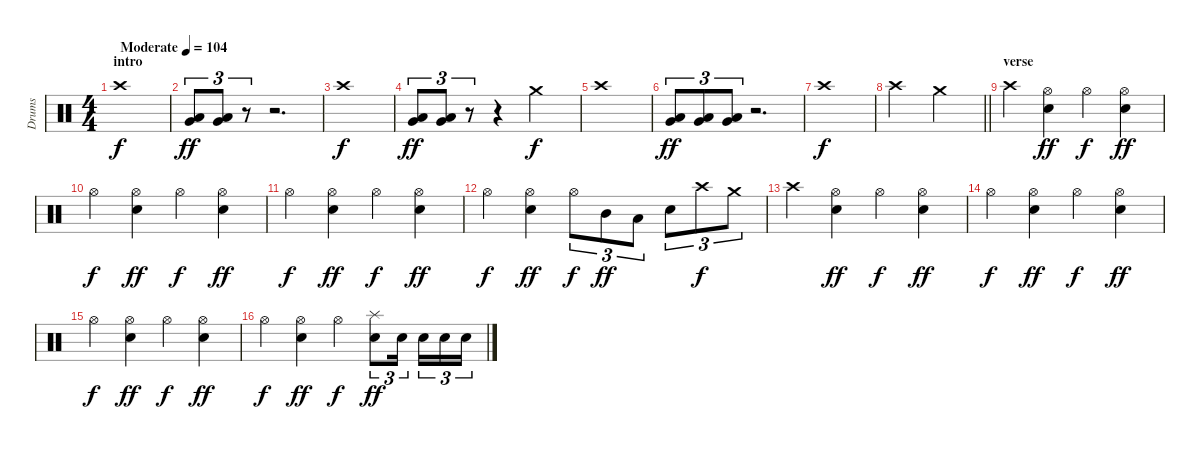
\track ("Drums" "Drums") {instrument percussion}
\staff {score}
\articulation defaults
\ts (4 4)
\section ("" "intro")
\tempo (104 "Moderate")
\clef neutral
\ks c "Crash high (hit)".1{dy f}
|
("Very Low Tom (hit)" "Low Floor Tom (hit)").8{tu (3 2) dy ff} ("Very Low Tom (hit)" "Low Floor Tom (hit)").8{tu (3 2)} r.8{tu (3 2)} r.2{d} |
"Crash high (hit)".1{dy f} |
("Very Low Tom (hit)" "Low Floor Tom (hit)").8{tu (3 2) dy ff} ("Very Low Tom (hit)" "Low Floor Tom (hit)").8{tu (3 2)} r.8{tu (3 2)} r.4 "Crash medium (hit)".2{dy f} |
"Crash high (hit)".1 |
("Very Low Tom (hit)" "Low Floor Tom (hit)").8{tu (3 2) dy ff} ("Very Low Tom (hit)" "Low Floor Tom (hit)").8{tu (3 2)} ("Very Low Tom (hit)" "Low Floor Tom (hit)").8{tu (3 2)} r.2{d} |
"Crash high (hit)".1{dy f} |
\barLineRight lightlight "Crash high (hit)".2 "Crash medium (hit)".2
|
\section ("" "verse")
"Crash high (hit)".4 ("Hi-Hat (open)" "Snare (hit) 2").4{dy ff} "Hi-Hat (open)".4{dy f} ("Hi-Hat (open)" "Snare (hit) 2").4{dy ff} |
"Hi-Hat (open)".4{dy f} ("Hi-Hat (open)" "Snare (hit) 2").4{dy ff} "Hi-Hat (open)".4{dy f} ("Hi-Hat (open)" "Snare (hit) 2").4{dy ff} |
"Hi-Hat (open)".4{dy f} ("Hi-Hat (open)" "Snare (hit) 2").4{dy ff} "Hi-Hat (open)".4{dy f} ("Hi-Hat (open)" "Snare (hit) 2").4{dy ff} |
"Hi-Hat (open)".4{dy f} ("Hi-Hat (open)" "Snare (hit) 2").4{dy ff} "Hi-Hat (open)".8{tu (3 2) dy f} "Mid Tom (hit)".8{tu (3 2) dy ff} "Low Tom (hit)".8{tu (3 2)} "Snare (hit) 2".8{tu (3 2)} "Crash high (hit)".8{tu (3 2) dy f} "Crash medium (hit)".8{tu (3 2)} |
"Crash high (hit)".4 ("Hi-Hat (open)" "Snare (hit) 2").4{dy ff} "Hi-Hat (open)".4{dy f} ("Hi-Hat (open)" "Snare (hit) 2").4{dy ff} |
"Hi-Hat (open)".4{dy f} ("Hi-Hat (open)" "Snare (hit) 2").4{dy ff} "Hi-Hat (open)".4{dy f} ("Hi-Hat (open)" "Snare (hit) 2").4{dy ff} |
"Hi-Hat (open)".4{dy f} ("Hi-Hat (open)" "Snare (hit) 2").4{dy ff} "Hi-Hat (open)".4{dy f} ("Hi-Hat (open)" "Snare (hit) 2").4{dy ff} |
"Hi-Hat (open)".4{dy f} ("Hi-Hat (open)" "Snare (hit) 2").4{dy ff} "Hi-Hat (open)".4{dy f} ("Splash (hit)" "Snare (hit) 2").8{tu (3 2) dy ff} "Snare (hit) 2".16{tu (3 2) beam splitsecondary} "Snare (hit) 2".16{tu (3 2)} "Snare (hit) 2".16{tu (3 2)} "Snare (hit) 2".16{tu (3 2)}
